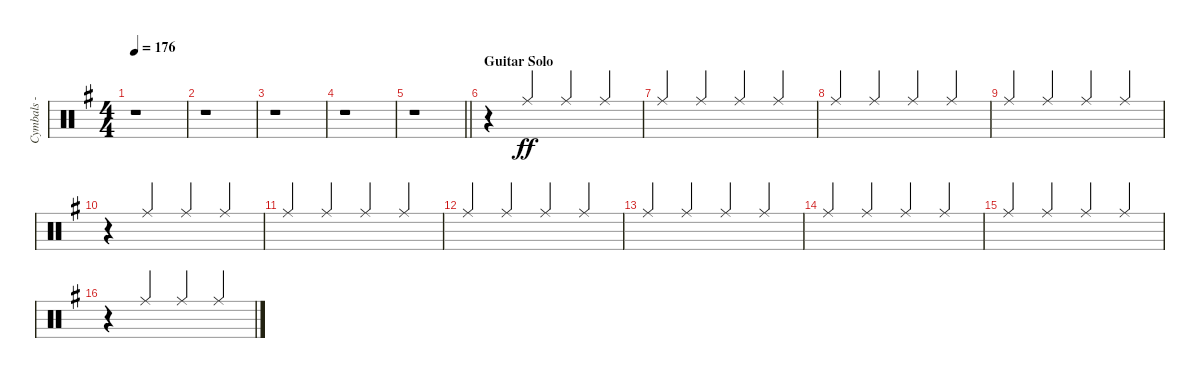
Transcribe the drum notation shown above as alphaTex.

\track ("Cymbals - ride" "Cymbals - ") {instrument percussion}
\staff {score}
\articulation defaults
\ts (4 4)
\tempo 176
\clef neutral
\ks eminor
r.1{dy ff} |
r.1 |
r.1 |
r.1 |
\barLineRight lightlight
r.1 |
\section ("" "Guitar Solo")
r.4 "Ride (middle)".4{beam Up} "Ride (middle)".4{beam Up} "Ride (middle)".4{beam Up} |
"Ride (middle)".4{beam Up} "Ride (middle)".4{beam Up} "Ride (middle)".4{beam Up} "Ride (middle)".4{beam Up} |
"Ride (middle)".4{beam Up} "Ride (middle)".4{beam Up} "Ride (middle)".4{beam Up} "Ride (middle)".4{beam Up} |
"Ride (middle)".4{beam Up} "Ride (middle)".4{beam Up} "Ride (middle)".4{beam Up} "Ride (middle)".4{beam Up} |
r.4 "Ride (middle)".4{beam Up} "Ride (middle)".4{beam Up} "Ride (middle)".4{beam Up} |
"Ride (middle)".4{beam Up} "Ride (middle)".4{beam Up} "Ride (middle)".4{beam Up} "Ride (middle)".4{beam Up} |
"Ride (middle)".4{beam Up} "Ride (middle)".4{beam Up} "Ride (middle)".4{beam Up} "Ride (middle)".4{beam Up} |
"Ride (middle)".4{beam Up} "Ride (middle)".4{beam Up} "Ride (middle)".4{beam Up} "Ride (middle)".4{beam Up} |
"Ride (middle)".4{beam Up} "Ride (middle)".4{beam Up} "Ride (middle)".4{beam Up} "Ride (middle)".4{beam Up} |
"Ride (middle)".4{beam Up} "Ride (middle)".4{beam Up} "Ride (middle)".4{beam Up} "Ride (middle)".4{beam Up} |
r.4 "Ride (middle)".4{beam Up} "Ride (middle)".4{beam Up} "Ride (middle)".4{beam Up}
